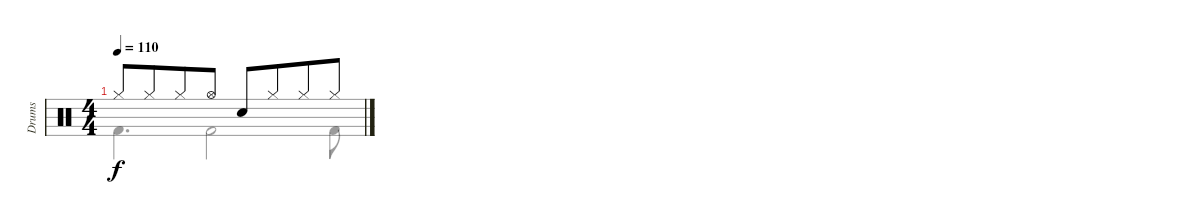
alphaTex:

\track ("Drums" "Drums") {instrument percussion}
\staff {score}
\articulation defaults
\voice
\ts (4 4)
\tempo 110
\clef neutral
\ks c "Hi-Hat (closed)".8{dy f} "Hi-Hat (closed)".8{beam merge} "Hi-Hat (closed)".8 "Hi-Hat (open)".8 "Snare (hit) 2".8 "Hi-Hat (closed)".8{beam merge} "Hi-Hat (closed)".8 "Hi-Hat (closed)".8
|
|
|
|
|
|
|
|
\voice
\clef neutral
\ks c "Kick (hit) 2".4{d dy f} "Kick (hit) 2".2 "Kick (hit) 2".8
|
|
|
|
|
|
|
|
